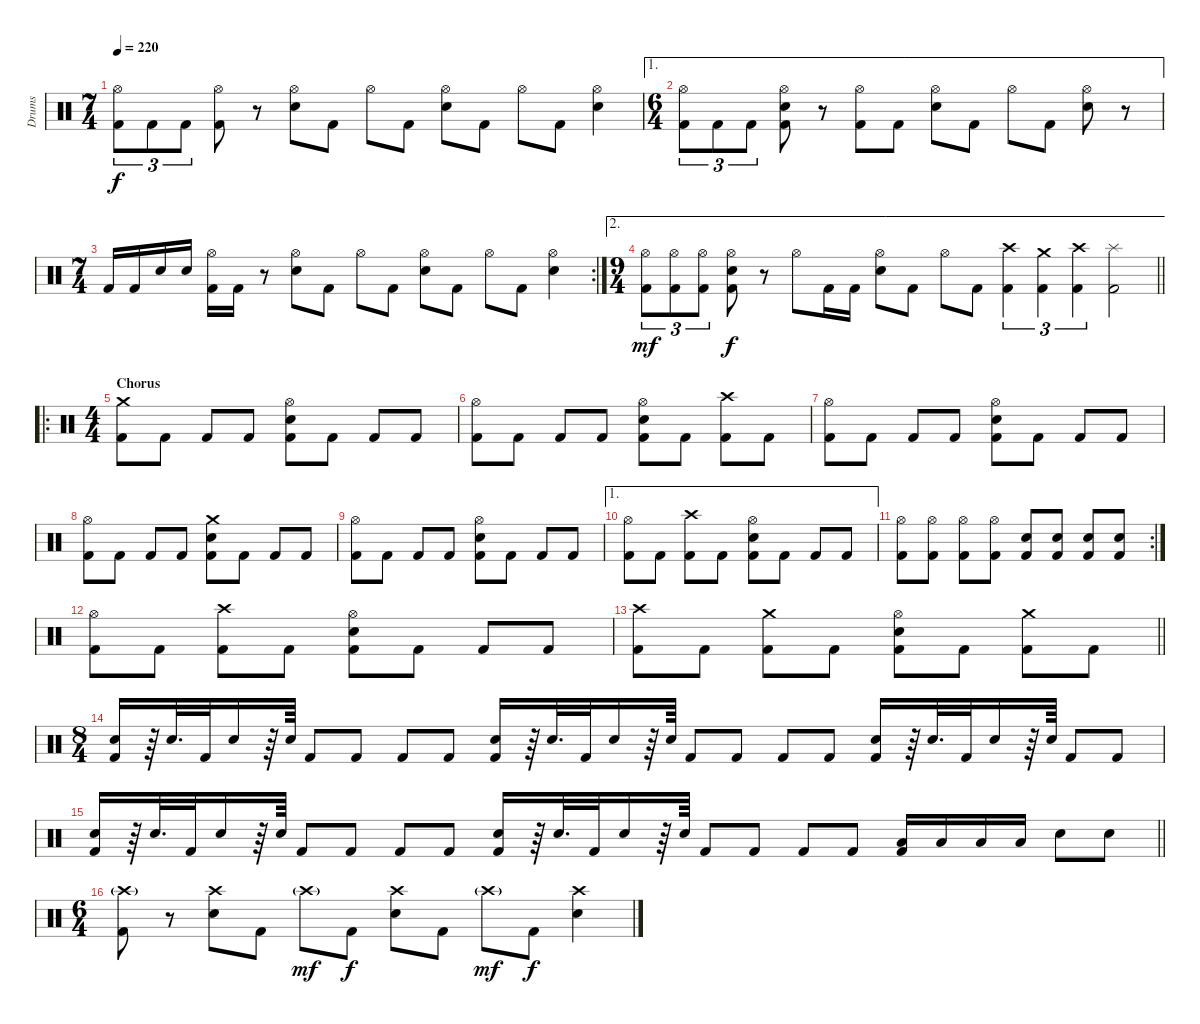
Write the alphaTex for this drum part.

\track ("Drums" "Drums") {instrument percussion}
\staff {score}
\articulation defaults
\ts (7 4)
\tempo 220
\clef neutral
\ks c
("Hi-Hat (open)" "Kick (hit) 2").8{tu (3 2) dy f} "Kick (hit) 2".8{tu (3 2)} "Kick (hit) 2".8{tu (3 2)} ("Hi-Hat (open)" "Kick (hit) 2").8 r.8 ("Hi-Hat (open)" "Electric Snare (hit)").8 "Kick (hit) 2".8 "Hi-Hat (open)".8 "Kick (hit) 2".8 ("Hi-Hat (open)" "Electric Snare (hit)").8 "Kick (hit) 2".8 "Hi-Hat (open)".8 "Kick (hit) 2".8 ("Hi-Hat (open)" "Electric Snare (hit)").4 |
\ae 1
\ts (6 4)
("Hi-Hat (open)" "Kick (hit) 2").8{tu (3 2)} "Kick (hit) 2".8{tu (3 2)} "Kick (hit) 2".8{tu (3 2)} ("Hi-Hat (open)" "Electric Snare (hit)" "Kick (hit) 2").8 r.8 ("Hi-Hat (open)" "Kick (hit) 2").8 "Kick (hit) 2".8 ("Hi-Hat (open)" "Electric Snare (hit)").8 "Kick (hit) 2".8 "Hi-Hat (open)".8 "Kick (hit) 2".8 ("Hi-Hat (open)" "Electric Snare (hit)").8 r.8 |
\rc 2
\ts (7 4)
"Kick (hit) 2".16 "Kick (hit) 2".16 "Electric Snare (hit)".16 "Electric Snare (hit)".16 ("Hi-Hat (open)" "Kick (hit) 2").16 "Kick (hit) 2".16 r.8 ("Hi-Hat (open)" "Electric Snare (hit)").8 "Kick (hit) 2".8 "Hi-Hat (open)".8 "Kick (hit) 2".8 ("Hi-Hat (open)" "Electric Snare (hit)").8 "Kick (hit) 2".8 "Hi-Hat (open)".8 "Kick (hit) 2".8 ("Hi-Hat (open)" "Electric Snare (hit)").4 |
\ae 2
\ts (9 4)
\barLineRight lightlight
("Hi-Hat (open)" "Kick (hit) 2").8{tu (3 2) dy mf} ("Hi-Hat (open)" "Kick (hit) 2").8{tu (3 2)} ("Hi-Hat (open)" "Kick (hit) 2").8{tu (3 2)} ("Hi-Hat (open)" "Electric Snare (hit)" "Kick (hit) 2").8{dy f} r.8 "Hi-Hat (open)".8 "Kick (hit) 2".16 "Kick (hit) 2".16 ("Hi-Hat (open)" "Electric Snare (hit)").8 "Kick (hit) 2".8 "Hi-Hat (open)".8 "Kick (hit) 2".8 ("Crash high (hit)" "Kick (hit) 2").4{tu (3 2)} ("Crash medium (hit)" "Kick (hit) 2").4{tu (3 2)} ("Crash high (hit)" "Kick (hit) 2").4{tu (3 2)} ("Splash (hit)" "Kick (hit) 2").2 |
\ro
\ts (4 4)
\section ("" "Chorus")
("Crash medium (hit)" "Kick (hit) 2").8 "Kick (hit) 2".8 "Kick (hit) 2".8 "Kick (hit) 2".8 ("Hi-Hat (open)" "Electric Snare (hit)" "Kick (hit) 2").8 "Kick (hit) 2".8 "Kick (hit) 2".8 "Kick (hit) 2".8 |
("Hi-Hat (open)" "Kick (hit) 2").8 "Kick (hit) 2".8 "Kick (hit) 2".8 "Kick (hit) 2".8 ("Hi-Hat (open)" "Electric Snare (hit)" "Kick (hit) 2").8 "Kick (hit) 2".8 ("Crash high (hit)" "Kick (hit) 2").8 "Kick (hit) 2".8 |
("Hi-Hat (open)" "Kick (hit) 2").8 "Kick (hit) 2".8 "Kick (hit) 2".8 "Kick (hit) 2".8 ("Hi-Hat (open)" "Electric Snare (hit)" "Kick (hit) 2").8 "Kick (hit) 2".8 "Kick (hit) 2".8 "Kick (hit) 2".8 |
("Hi-Hat (open)" "Kick (hit) 2").8 "Kick (hit) 2".8 "Kick (hit) 2".8 "Kick (hit) 2".8 ("Crash medium (hit)" "Electric Snare (hit)" "Kick (hit) 2").8 "Kick (hit) 2".8 "Kick (hit) 2".8 "Kick (hit) 2".8 |
("Hi-Hat (open)" "Kick (hit) 2").8 "Kick (hit) 2".8 "Kick (hit) 2".8 "Kick (hit) 2".8 ("Hi-Hat (open)" "Electric Snare (hit)" "Kick (hit) 2").8 "Kick (hit) 2".8 "Kick (hit) 2".8 "Kick (hit) 2".8 |
\ae 1
("Hi-Hat (open)" "Kick (hit) 2").8 "Kick (hit) 2".8 ("Crash high (hit)" "Kick (hit) 2").8 "Kick (hit) 2".8 ("Hi-Hat (open)" "Electric Snare (hit)" "Kick (hit) 2").8 "Kick (hit) 2".8 "Kick (hit) 2".8 "Kick (hit) 2".8 |
\rc 2
("Hi-Hat (open)" "Kick (hit) 2").8 ("Hi-Hat (open)" "Kick (hit) 2").8 ("Hi-Hat (open)" "Kick (hit) 2").8 ("Hi-Hat (open)" "Kick (hit) 2").8 ("Electric Snare (hit)" "Kick (hit) 2").8 ("Electric Snare (hit)" "Kick (hit) 2").8 ("Electric Snare (hit)" "Kick (hit) 2").8 ("Electric Snare (hit)" "Kick (hit) 2").8 |
("Hi-Hat (open)" "Kick (hit) 2").8 "Kick (hit) 2".8 ("Crash high (hit)" "Kick (hit) 2").8 "Kick (hit) 2".8 ("Hi-Hat (open)" "Electric Snare (hit)" "Kick (hit) 2").8 "Kick (hit) 2".8 "Kick (hit) 2".8 "Kick (hit) 2".8 |
\barLineRight lightlight
("Crash high (hit)" "Kick (hit) 2").8 "Kick (hit) 2".8 ("Crash medium (hit)" "Kick (hit) 2").8 "Kick (hit) 2".8 ("Hi-Hat (open)" "Electric Snare (hit)" "Kick (hit) 2").8 "Kick (hit) 2".8 ("Crash medium (hit)" "Kick (hit) 2").8 "Kick (hit) 2".8 |
\ts (8 4)
("Electric Snare (hit)" "Kick (hit) 2").16 r.64 "Electric Snare (hit)".32{d} "Kick (hit) 2".32 "Electric Snare (hit)".16 r.64 "Electric Snare (hit)".64 "Kick (hit) 2".8 "Kick (hit) 2".8 "Kick (hit) 2".8 "Kick (hit) 2".8 ("Electric Snare (hit)" "Kick (hit) 2").16 r.64 "Electric Snare (hit)".32{d} "Kick (hit) 2".32 "Electric Snare (hit)".16 r.64 "Electric Snare (hit)".64 "Kick (hit) 2".8 "Kick (hit) 2".8 "Kick (hit) 2".8 "Kick (hit) 2".8 ("Electric Snare (hit)" "Kick (hit) 2").16 r.64 "Electric Snare (hit)".32{d} "Kick (hit) 2".32 "Electric Snare (hit)".16 r.64 "Electric Snare (hit)".64 "Kick (hit) 2".8 "Kick (hit) 2".8 |
\barLineRight lightlight
("Electric Snare (hit)" "Kick (hit) 2").16 r.64 "Electric Snare (hit)".32{d} "Kick (hit) 2".32 "Electric Snare (hit)".16 r.64 "Electric Snare (hit)".64 "Kick (hit) 2".8 "Kick (hit) 2".8 "Kick (hit) 2".8 "Kick (hit) 2".8 ("Electric Snare (hit)" "Kick (hit) 2").16 r.64 "Electric Snare (hit)".32{d} "Kick (hit) 2".32 "Electric Snare (hit)".16 r.64 "Electric Snare (hit)".64 "Kick (hit) 2".8 "Kick (hit) 2".8 "Kick (hit) 2".8 "Kick (hit) 2".8 ("Low Floor Tom (hit)" "Kick (hit) 2").16 "Low Floor Tom (hit)".16 "Low Floor Tom (hit)".16 "Low Floor Tom (hit)".16 "Electric Snare (hit)".8 "Electric Snare (hit)".8 |
\ts (6 4)
("Crash high (hit)"{g} "Kick (hit) 2").8 r.8 ("Crash high (hit)" "Electric Snare (hit)").8 "Kick (hit) 2".8 "Crash high (hit)"{g}.8{dy mf} "Kick (hit) 2".8{dy f} ("Crash high (hit)" "Electric Snare (hit)").8 "Kick (hit) 2".8 "Crash high (hit)"{g}.8{dy mf} "Kick (hit) 2".8{dy f} ("Crash high (hit)" "Electric Snare (hit)").4
